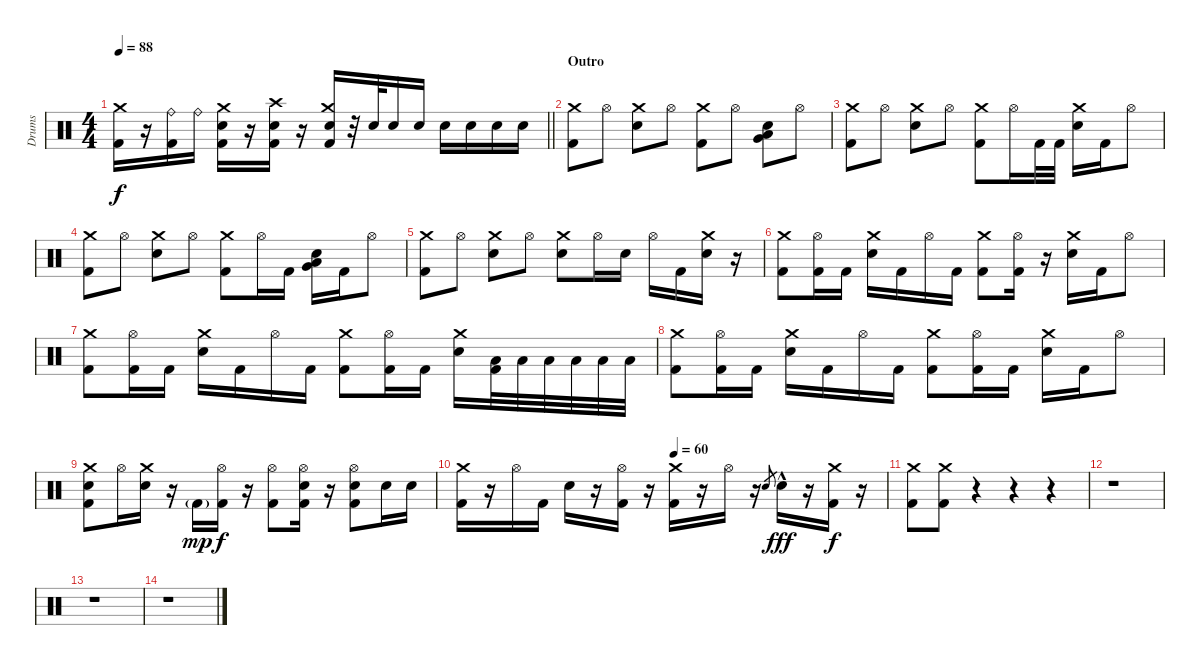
\track ("Drums" "Drums") {instrument percussion}
\staff {score}
\articulation defaults
\ts (4 4)
\tempo 88
\clef neutral
\barLineRight lightlight
\ks c
("Kick (hit) 2" "Crash medium (hit)").16{dy f} r.16 ("Ride (bell)" "Kick (hit) 2").16 "Ride (bell)".16 ("Crash medium (hit)" "Kick (hit) 2" "Snare (hit) 2").16 r.16 ("Crash high (hit)" "Kick (hit) 2" "Snare (hit) 2").16 r.16 ("Kick (hit) 2" "Snare (hit) 2" "Crash medium (hit)").16 r.32 "Snare (hit) 2".32 "Snare (hit) 2".16 "Snare (hit) 2".16 "Snare (hit) 2".16 "Snare (hit) 2".16 "Snare (hit) 2".16 "Snare (hit) 2".16 |
\section ("" "Outro")
("Crash medium (hit)" "Kick (hit) 2").8 "Hi-Hat (open)".8 ("Crash medium (hit)" "Snare (hit) 2").8 "Hi-Hat (open)".8 ("Crash medium (hit)" "Kick (hit) 2").8 "Hi-Hat (open)".8 ("Very Low Tom (hit)" "Low Floor Tom (hit)" "Snare (hit) 2").8 "Hi-Hat (open)".8 |
("Crash medium (hit)" "Kick (hit) 2").8 "Hi-Hat (open)".8 ("Crash medium (hit)" "Snare (hit) 2").8 "Hi-Hat (open)".8 ("Crash medium (hit)" "Kick (hit) 2").8 "Hi-Hat (open)".16 "Kick (hit) 2".32 "Kick (hit) 2".32 ("Snare (hit) 2" "Crash medium (hit)").16 "Kick (hit) 2".16 "Hi-Hat (open)".8 |
("Crash medium (hit)" "Kick (hit) 2").8 "Hi-Hat (open)".8 ("Crash medium (hit)" "Snare (hit) 2").8 "Hi-Hat (open)".8 ("Crash medium (hit)" "Kick (hit) 2").8 "Hi-Hat (open)".16 "Kick (hit) 2".16 ("Very Low Tom (hit)" "Low Floor Tom (hit)" "Snare (hit) 2").16 "Kick (hit) 2".16 "Hi-Hat (open)".8 |
("Crash medium (hit)" "Kick (hit) 2").8 "Hi-Hat (open)".8 ("Crash medium (hit)" "Snare (hit) 2").8 "Hi-Hat (open)".8 ("Crash medium (hit)" "Snare (hit) 2").8 "Hi-Hat (open)".16 "Snare (hit) 2".16 "Hi-Hat (open)".16 "Kick (hit) 2".16 ("Snare (hit) 2" "Crash medium (hit)").16 r.16 |
("Crash medium (hit)" "Kick (hit) 2").8 ("Hi-Hat (open)" "Kick (hit) 2").16 "Kick (hit) 2".16 ("Crash medium (hit)" "Snare (hit) 2").16 "Kick (hit) 2".16 "Hi-Hat (open)".16 "Kick (hit) 2".16 ("Crash medium (hit)" "Kick (hit) 2").8 ("Hi-Hat (open)" "Kick (hit) 2").16 r.16 ("Snare (hit) 2" "Crash medium (hit)").16 "Kick (hit) 2".16 "Hi-Hat (open)".8 |
("Crash medium (hit)" "Kick (hit) 2").8 ("Hi-Hat (open)" "Kick (hit) 2").16 "Kick (hit) 2".16 ("Crash medium (hit)" "Snare (hit) 2").16 "Kick (hit) 2".16 "Hi-Hat (open)".16 "Kick (hit) 2".16 ("Crash medium (hit)" "Kick (hit) 2").8 ("Hi-Hat (open)" "Kick (hit) 2").16 "Kick (hit) 2".16 ("Snare (hit) 2" "Crash medium (hit)").16 ("Low Tom (hit)" "Kick (hit) 2").32 "Low Tom (hit)".32 "Low Tom (hit)".32 "Low Tom (hit)".32 "Low Tom (hit)".32 "Low Tom (hit)".32 |
("Crash medium (hit)" "Kick (hit) 2").8 ("Hi-Hat (open)" "Kick (hit) 2").16 "Kick (hit) 2".16 ("Crash medium (hit)" "Snare (hit) 2").16 "Kick (hit) 2".16 "Hi-Hat (open)".16 "Kick (hit) 2".16 ("Crash medium (hit)" "Kick (hit) 2").8 ("Hi-Hat (open)" "Kick (hit) 2").16 "Kick (hit) 2".16 ("Snare (hit) 2" "Crash medium (hit)").16 "Kick (hit) 2".16 "Hi-Hat (open)".8 |
("Crash medium (hit)" "Snare (hit) 2" "Kick (hit) 2").8 "Hi-Hat (open)".16 ("Crash medium (hit)" "Snare (hit) 2").16 r.16 "Kick (hit) 2"{g}.16{dy mp} ("Hi-Hat (open)" "Kick (hit) 2").16{dy f} r.16 ("Hi-Hat (open)" "Kick (hit) 2").8 ("Hi-Hat (open)" "Kick (hit) 2" "Snare (hit) 2").16 r.16 ("Hi-Hat (open)" "Snare (hit) 2" "Kick (hit) 2").8 "Snare (hit) 2".16 "Snare (hit) 2".16 |
\tempo (60 0.5)
("Crash medium (hit)" "Kick (hit) 2").16 r.16 "Hi-Hat (open)".16 "Kick (hit) 2".16 "Snare (hit) 2".16 r.16 ("Kick (hit) 2" "Hi-Hat (open)").16 r.16 ("Kick (hit) 2" "Crash medium (hit)").16 r.16 "Hi-Hat (open)".16 r.16 "Snare (hit) 2".8{gr} "Snare (hit) 2"{hac}.16{dy fff} r.16 ("Kick (hit) 2" "Crash medium (hit)").16{dy f} r.16 |
("Kick (hit) 2" "Crash medium (hit)").8 ("Kick (hit) 2" "Crash medium (hit)").8 r.4 r.4 r.4 |
r.1 |
r.1 |
r.1
